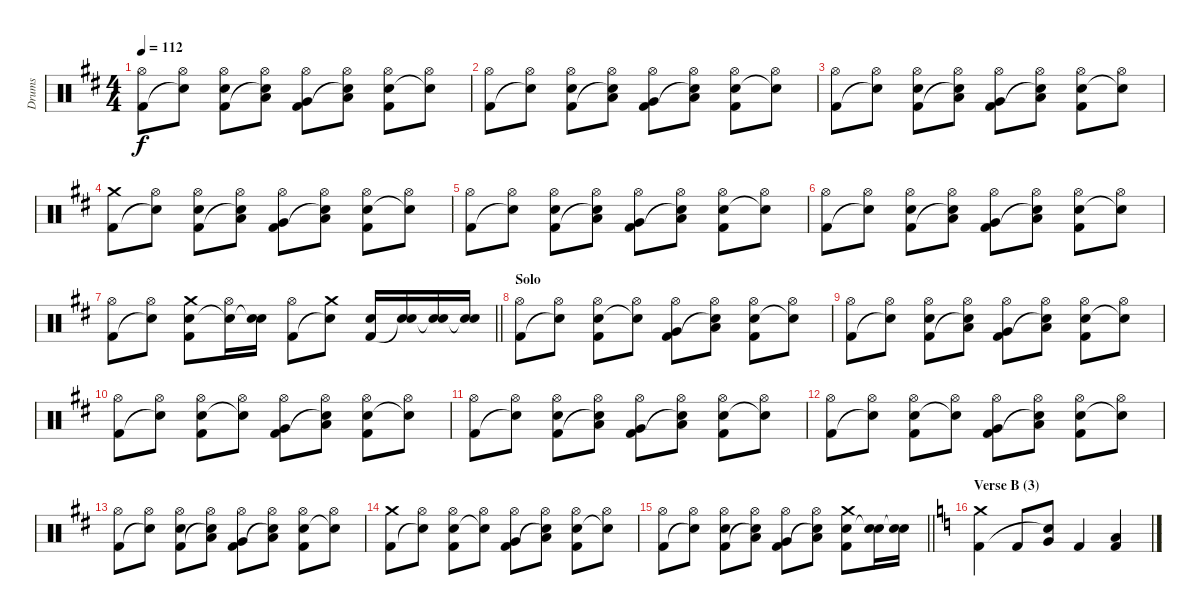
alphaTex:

\track ("Drums" "Drums") {instrument percussion}
\staff {score}
\articulation defaults
\ts (4 4)
\tempo 112
\clef neutral
\ks bminor
("Hi-Hat (open)" "Kick (hit) 2").8{dy f} ("Hi-Hat (open)" "Snare (hit)"{t}).8 ("Hi-Hat (open)" "Electric Snare (hit)" "Kick (hit) 2").8 ("Hi-Hat (open)" "Low Tom (hit)" "Snare (hit)"{t}).8 ("Hi-Hat (open)" "Very Low Tom (hit)" "Kick (hit) 2").8 ("Hi-Hat (open)" "Low Floor Tom (hit)" "Snare (hit)"{t}).8 ("Hi-Hat (open)" "Electric Snare (hit)" "Kick (hit) 2").8 ("Hi-Hat (open)" "Snare (hit)"{t}).8 |
("Hi-Hat (open)" "Kick (hit) 2").8 ("Hi-Hat (open)" "Snare (hit)"{t}).8 ("Hi-Hat (open)" "Electric Snare (hit)" "Kick (hit) 2").8 ("Hi-Hat (open)" "Low Tom (hit)" "Snare (hit)"{t}).8 ("Hi-Hat (open)" "Very Low Tom (hit)" "Kick (hit) 2").8 ("Hi-Hat (open)" "Low Floor Tom (hit)" "Snare (hit)"{t}).8 ("Hi-Hat (open)" "Electric Snare (hit)" "Kick (hit) 2").8 ("Hi-Hat (open)" "Snare (hit)"{t}).8 |
("Hi-Hat (open)" "Kick (hit) 2").8 ("Hi-Hat (open)" "Snare (hit)"{t}).8 ("Hi-Hat (open)" "Electric Snare (hit)" "Kick (hit) 2").8 ("Hi-Hat (open)" "Low Tom (hit)" "Snare (hit)"{t}).8 ("Hi-Hat (open)" "Very Low Tom (hit)" "Kick (hit) 2").8 ("Hi-Hat (open)" "Low Floor Tom (hit)" "Snare (hit)"{t}).8 ("Hi-Hat (open)" "Electric Snare (hit)" "Kick (hit) 2").8 ("Hi-Hat (open)" "Snare (hit)"{t}).8 |
("Crash medium (hit)" "Kick (hit) 2").8 ("Hi-Hat (open)" "Snare (hit)"{t}).8 ("Hi-Hat (open)" "Electric Snare (hit)" "Kick (hit) 2").8 ("Hi-Hat (open)" "Low Tom (hit)" "Snare (hit)"{t}).8 ("Hi-Hat (open)" "Very Low Tom (hit)" "Kick (hit) 2").8 ("Hi-Hat (open)" "Low Floor Tom (hit)" "Snare (hit)"{t}).8 ("Hi-Hat (open)" "Electric Snare (hit)" "Kick (hit) 2").8 ("Hi-Hat (open)" "Snare (hit)"{t}).8 |
("Hi-Hat (open)" "Kick (hit) 2").8 ("Hi-Hat (open)" "Snare (hit)"{t}).8 ("Hi-Hat (open)" "Electric Snare (hit)" "Kick (hit) 2").8 ("Hi-Hat (open)" "Low Tom (hit)" "Snare (hit)"{t}).8 ("Hi-Hat (open)" "Very Low Tom (hit)" "Kick (hit) 2").8 ("Hi-Hat (open)" "Low Floor Tom (hit)" "Snare (hit)"{t}).8 ("Hi-Hat (open)" "Electric Snare (hit)" "Kick (hit) 2").8 ("Hi-Hat (open)" "Snare (hit)"{t}).8 |
("Hi-Hat (open)" "Kick (hit) 2").8 ("Hi-Hat (open)" "Snare (hit)"{t}).8 ("Hi-Hat (open)" "Electric Snare (hit)" "Kick (hit) 2").8 ("Hi-Hat (open)" "Low Tom (hit)" "Snare (hit)"{t}).8 ("Hi-Hat (open)" "Very Low Tom (hit)" "Kick (hit) 2").8 ("Hi-Hat (open)" "Low Floor Tom (hit)" "Snare (hit)"{t}).8 ("Hi-Hat (open)" "Electric Snare (hit)" "Kick (hit) 2").8 ("Hi-Hat (open)" "Snare (hit)"{t}).8 |
\barLineRight lightlight
("Hi-Hat (open)" "Kick (hit) 2").8 ("Hi-Hat (open)" "Snare (hit)"{t}).8 ("Crash medium (hit)" "Electric Snare (hit)" "Kick (hit) 2").8 ("Hi-Hat (open)" "Snare (hit)"{t}).16 ("Electric Snare (hit)" "Snare (hit)"{t}).16 ("Hi-Hat (open)" "Kick (hit) 2").8 ("Crash medium (hit)" "Snare (hit)"{t}).8 ("Electric Snare (hit)" "Kick (hit) 2").16 ("Electric Snare (hit)" "Snare (hit)"{t}).16 ("Electric Snare (hit)" "Snare (hit)"{t}).16 ("Electric Snare (hit)" "Snare (hit)"{t}).16 |
\section ("" "Solo")
("Hi-Hat (open)" "Kick (hit) 2").8 ("Hi-Hat (open)" "Snare (hit)"{t}).8 ("Hi-Hat (open)" "Electric Snare (hit)" "Kick (hit) 2").8 ("Hi-Hat (open)" "Snare (hit)"{t}).8 ("Hi-Hat (open)" "Very Low Tom (hit)" "Kick (hit) 2").8 ("Hi-Hat (open)" "Low Floor Tom (hit)" "Snare (hit)"{t}).8 ("Hi-Hat (open)" "Electric Snare (hit)" "Kick (hit) 2").8 ("Hi-Hat (open)" "Snare (hit)"{t}).8 |
("Hi-Hat (open)" "Kick (hit) 2").8 ("Hi-Hat (open)" "Snare (hit)"{t}).8 ("Hi-Hat (open)" "Electric Snare (hit)" "Kick (hit) 2").8 ("Hi-Hat (open)" "Low Tom (hit)" "Snare (hit)"{t}).8 ("Hi-Hat (open)" "Very Low Tom (hit)" "Kick (hit) 2").8 ("Hi-Hat (open)" "Low Floor Tom (hit)" "Snare (hit)"{t}).8 ("Hi-Hat (open)" "Electric Snare (hit)" "Kick (hit) 2").8 ("Hi-Hat (open)" "Snare (hit)"{t}).8 |
("Hi-Hat (open)" "Kick (hit) 2").8 ("Hi-Hat (open)" "Snare (hit)"{t}).8 ("Hi-Hat (open)" "Electric Snare (hit)" "Kick (hit) 2").8 ("Hi-Hat (open)" "Snare (hit)"{t}).8 ("Hi-Hat (open)" "Very Low Tom (hit)" "Kick (hit) 2").8 ("Hi-Hat (open)" "Low Floor Tom (hit)" "Snare (hit)"{t}).8 ("Hi-Hat (open)" "Electric Snare (hit)" "Kick (hit) 2").8 ("Hi-Hat (open)" "Snare (hit)"{t}).8 |
("Hi-Hat (open)" "Kick (hit) 2").8 ("Hi-Hat (open)" "Snare (hit)"{t}).8 ("Hi-Hat (open)" "Electric Snare (hit)" "Kick (hit) 2").8 ("Hi-Hat (open)" "Low Tom (hit)" "Snare (hit)"{t}).8 ("Hi-Hat (open)" "Very Low Tom (hit)" "Kick (hit) 2").8 ("Hi-Hat (open)" "Low Floor Tom (hit)" "Snare (hit)"{t}).8 ("Hi-Hat (open)" "Electric Snare (hit)" "Kick (hit) 2").8 ("Hi-Hat (open)" "Snare (hit)"{t}).8 |
("Hi-Hat (open)" "Kick (hit) 2").8 ("Hi-Hat (open)" "Snare (hit)"{t}).8 ("Hi-Hat (open)" "Electric Snare (hit)" "Kick (hit) 2").8 ("Hi-Hat (open)" "Snare (hit)"{t}).8 ("Hi-Hat (open)" "Very Low Tom (hit)" "Kick (hit) 2").8 ("Hi-Hat (open)" "Low Floor Tom (hit)" "Snare (hit)"{t}).8 ("Hi-Hat (open)" "Electric Snare (hit)" "Kick (hit) 2").8 ("Hi-Hat (open)" "Snare (hit)"{t}).8 |
("Hi-Hat (open)" "Kick (hit) 2").8 ("Hi-Hat (open)" "Snare (hit)"{t}).8 ("Hi-Hat (open)" "Electric Snare (hit)" "Kick (hit) 2").8 ("Hi-Hat (open)" "Low Tom (hit)" "Snare (hit)"{t}).8 ("Hi-Hat (open)" "Very Low Tom (hit)" "Kick (hit) 2").8 ("Hi-Hat (open)" "Low Floor Tom (hit)" "Snare (hit)"{t}).8 ("Hi-Hat (open)" "Electric Snare (hit)" "Kick (hit) 2").8 ("Hi-Hat (open)" "Snare (hit)"{t}).8 |
("Crash medium (hit)" "Kick (hit) 2").8 ("Hi-Hat (open)" "Snare (hit)"{t}).8 ("Hi-Hat (open)" "Electric Snare (hit)" "Kick (hit) 2").8 ("Hi-Hat (open)" "Snare (hit)"{t}).8 ("Hi-Hat (open)" "Very Low Tom (hit)" "Kick (hit) 2").8 ("Hi-Hat (open)" "Low Floor Tom (hit)" "Snare (hit)"{t}).8 ("Hi-Hat (open)" "Electric Snare (hit)" "Kick (hit) 2").8 ("Hi-Hat (open)" "Snare (hit)"{t}).8 |
\barLineRight lightlight
("Hi-Hat (open)" "Kick (hit) 2").8 ("Hi-Hat (open)" "Snare (hit)"{t}).8 ("Hi-Hat (open)" "Electric Snare (hit)" "Kick (hit) 2").8 ("Hi-Hat (open)" "Low Tom (hit)" "Snare (hit)"{t}).8 ("Hi-Hat (open)" "Very Low Tom (hit)" "Kick (hit) 2").8 ("Hi-Hat (open)" "Low Floor Tom (hit)" "Snare (hit)"{t}).8 ("Crash medium (hit)" "Electric Snare (hit)" "Kick (hit) 2").8 ("Electric Snare (hit)" "Snare (hit)"{t}).16 ("Electric Snare (hit)" "Snare (hit)"{t}).16 |
\section ("" "Verse B (3)")
\ks aminor
("Crash medium (hit)" "Kick (hit) 2").4 "Kick (hit) 2".8 ("Very Low Tom (hit)" "Snare (hit)"{t}).8 "Kick (hit) 2".4 ("Low Floor Tom (hit)" "Kick (hit) 2").4
